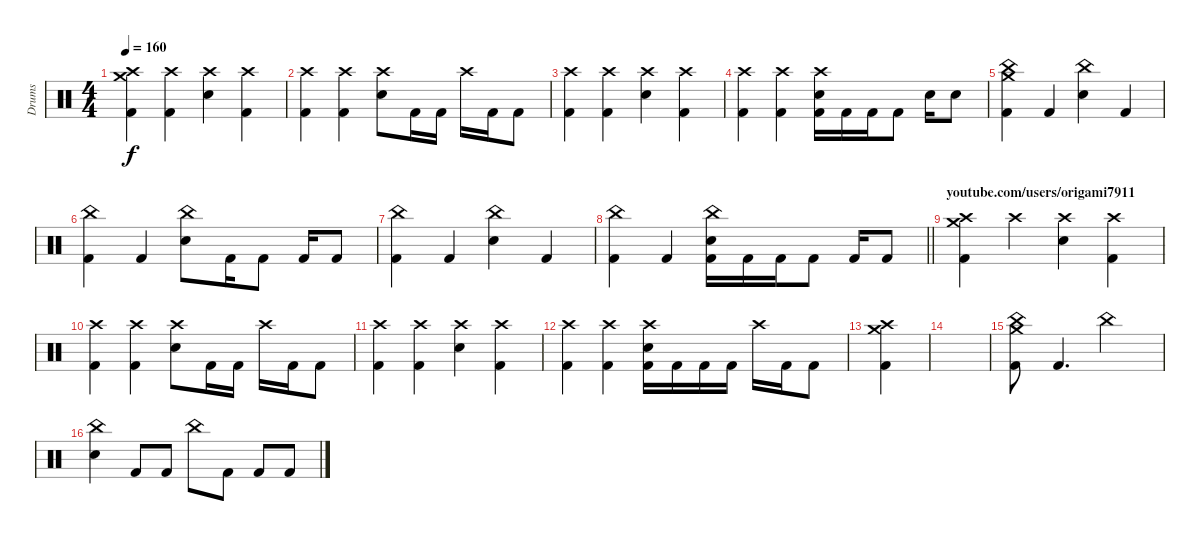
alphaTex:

\track ("Drums" "Drums") {instrument percussion}
\staff {score}
\articulation defaults
\ts (4 4)
\tempo 160
\clef neutral
\ks c
("Crash medium (hit)" "Crash high (hit)" "Kick (hit) 2").4{dy f} ("Crash high (hit)" "Kick (hit) 2").4 ("Crash high (hit)" "Electric Snare (hit)").4 ("Crash high (hit)" "Kick (hit) 2").4 |
("Crash high (hit)" "Kick (hit) 2").4 ("Crash high (hit)" "Kick (hit) 2").4 ("Crash high (hit)" "Electric Snare (hit)").8 "Kick (hit) 2".16 "Kick (hit) 2".16 "Crash high (hit)".16 "Kick (hit) 2".16 "Kick (hit) 2".8 |
("Crash high (hit)" "Kick (hit) 2").4 ("Crash high (hit)" "Kick (hit) 2").4 ("Crash high (hit)" "Electric Snare (hit)").4 ("Crash high (hit)" "Kick (hit) 2").4 |
("Crash high (hit)" "Kick (hit) 2").4 ("Crash high (hit)" "Kick (hit) 2").4 ("Crash high (hit)" "Electric Snare (hit)" "Kick (hit) 2").16 "Kick (hit) 2".16 "Kick (hit) 2".16 "Kick (hit) 2".8 "Electric Snare (hit)".16 "Electric Snare (hit)".8 |
("Crash medium (hit)" "China (hit)" "Kick (hit) 2").4 "Kick (hit) 2".4 ("China (hit)" "Electric Snare (hit)").4 "Kick (hit) 2".4 |
("China (hit)" "Kick (hit) 2").4 "Kick (hit) 2".4 ("China (hit)" "Electric Snare (hit)").8 "Kick (hit) 2".16 "Kick (hit) 2".8 "Kick (hit) 2".16 "Kick (hit) 2".8 |
("China (hit)" "Kick (hit) 2").4 "Kick (hit) 2".4 ("China (hit)" "Electric Snare (hit)").4 "Kick (hit) 2".4 |
\barLineRight lightlight
("China (hit)" "Kick (hit) 2").4 "Kick (hit) 2".4 ("China (hit)" "Electric Snare (hit)" "Kick (hit) 2").16 "Kick (hit) 2".16 "Kick (hit) 2".16 "Kick (hit) 2".8 "Kick (hit) 2".16 "Kick (hit) 2".8 |
\section ("" "youtube.com/users/origami7911")
("Crash medium (hit)" "Crash high (hit)" "Kick (hit) 2").4 "Crash high (hit)".4 ("Crash high (hit)" "Electric Snare (hit)").4 ("Crash high (hit)" "Kick (hit) 2").4 |
("Crash high (hit)" "Kick (hit) 2").4 ("Crash high (hit)" "Kick (hit) 2").4 ("Crash high (hit)" "Electric Snare (hit)").8 "Kick (hit) 2".16 "Kick (hit) 2".16 "Crash high (hit)".16 "Kick (hit) 2".16 "Kick (hit) 2".8 |
("Crash high (hit)" "Kick (hit) 2").4 ("Crash high (hit)" "Kick (hit) 2").4 ("Crash high (hit)" "Electric Snare (hit)").4 ("Crash high (hit)" "Kick (hit) 2").4 |
("Crash high (hit)" "Kick (hit) 2").4 ("Crash high (hit)" "Kick (hit) 2").4 ("Crash high (hit)" "Electric Snare (hit)" "Kick (hit) 2").16 "Kick (hit) 2".16 "Kick (hit) 2".16 "Kick (hit) 2".16 "Crash high (hit)".16 "Kick (hit) 2".16 "Kick (hit) 2".8 |
("Crash medium (hit)" "Crash high (hit)" "Kick (hit) 2").4 |
|
("Crash medium (hit)" "China (hit)" "Kick (hit) 2").8 "Kick (hit) 2".4{d} "China (hit)".2 |
("China (hit)" "Electric Snare (hit)").4 "Kick (hit) 2".8 "Kick (hit) 2".8 "China (hit)".8 "Kick (hit) 2".8 "Kick (hit) 2".8 "Kick (hit) 2".8
